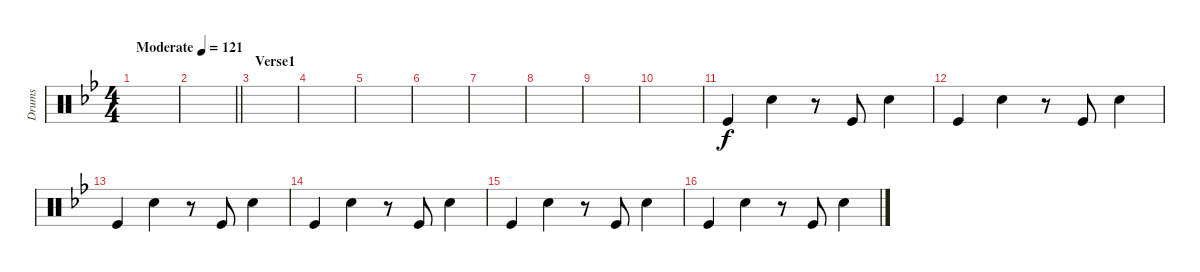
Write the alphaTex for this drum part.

\track ("Drums" "Drums") {instrument percussion}
\staff {score}
\articulation defaults
\ts (4 4)
\tempo (121 "Moderate")
\clef neutral
\ks bb
|
\barLineRight lightlight
|
\section ("" "Verse1")
|
|
|
|
|
|
|
|
"Kick (hit)".4 "Snare (hit) 2".4 r.8 "Kick (hit)".8 "Snare (hit) 2".4 |
"Kick (hit)".4 "Snare (hit) 2".4 r.8 "Kick (hit)".8 "Snare (hit) 2".4 |
"Kick (hit)".4 "Snare (hit) 2".4 r.8 "Kick (hit)".8 "Snare (hit) 2".4 |
"Kick (hit)".4 "Snare (hit) 2".4 r.8 "Kick (hit)".8 "Snare (hit) 2".4 |
"Kick (hit)".4 "Snare (hit) 2".4 r.8 "Kick (hit)".8 "Snare (hit) 2".4 |
"Kick (hit)".4 "Snare (hit) 2".4 r.8 "Kick (hit)".8 "Snare (hit) 2".4
